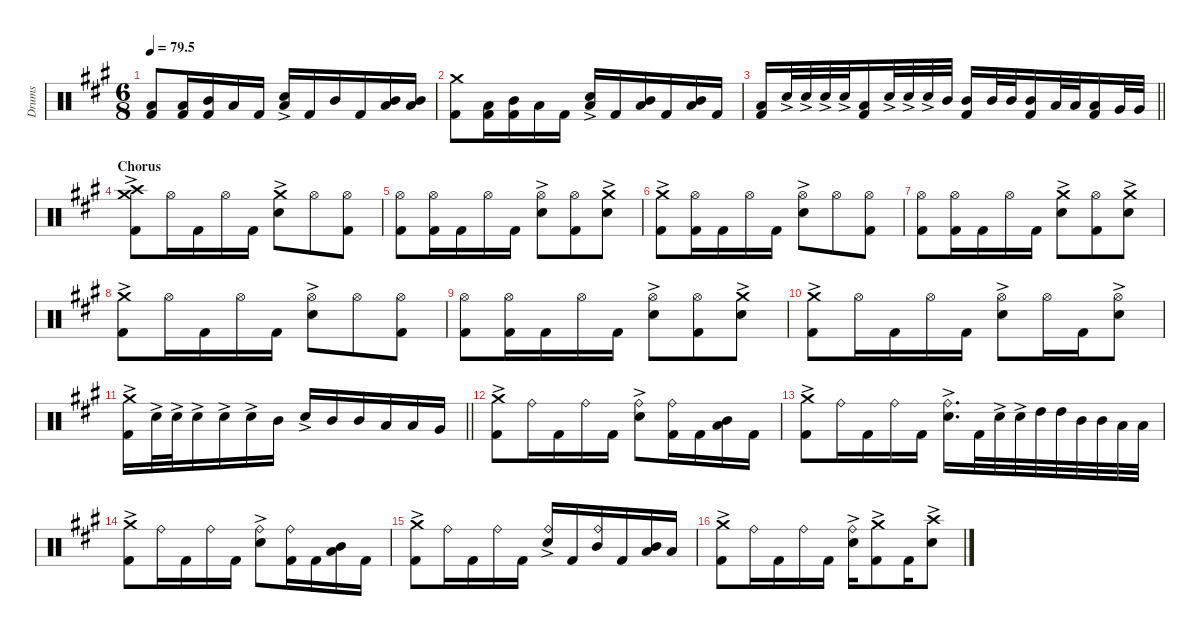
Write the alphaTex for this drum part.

\defaultSystemsLayout 4
\hideDynamics
\bracketExtendMode nobrackets
\otherSystemsTrackNameOrientation horizontal
\track ("Drumkit-show" "Drums") {mute instrument percussion}
\staff {score}
\articulation defaults
\ts (6 8)
\tempo
79.5
\accidentals auto
\clef neutral
\ottava regular
\simile none
\ks a
("Low Tom (hit)"{acc forcenatural} "Kick (hit) 2"{acc forcenatural}).8{dy f beam Up} ("Low Tom (hit)"{acc forcenatural} "Kick (hit) 2"{acc forcenatural}).16{beam Up} ("Mid Tom (hit)"{acc forcenatural} "Kick (hit) 2"{acc forcenatural}).16{beam Up} "Low Tom (hit)"{acc forcenatural}.16{beam Up} "Kick (hit) 2"{acc forcenatural}.16{beam Up} ("Snare (hit) 2"{ac acc forcenatural} "Low Tom (hit)"{acc forcenatural}).16{beam Up} "Kick (hit) 2"{acc forcenatural}.16{beam Up} "Mid Tom (hit)"{acc forcenatural}.16{beam Up} "Kick (hit) 2"{acc forcenatural}.16{beam Up} ("Mid Tom (hit)"{acc forcenatural} "Low Tom (hit)"{acc forcenatural}).16{beam Up} ("Mid Tom (hit)"{acc forcenatural} "Low Tom (hit)"{acc forcenatural}).16{beam Up} |
("Crash medium (hit)"{acc forcenatural} "Kick (hit) 2"{acc forcenatural}).8{beam Down} ("Low Tom (hit)"{acc forcenatural} "Kick (hit) 2"{acc forcenatural}).16{beam Down} ("Mid Tom (hit)"{acc forcenatural} "Kick (hit) 2"{acc forcenatural}).16{beam Down} "Low Tom (hit)"{acc forcenatural}.16{beam Down} "Kick (hit) 2"{acc forcenatural}.16{beam Down} ("Snare (hit) 2"{ac acc forcenatural} "Low Tom (hit)"{acc forcenatural}).16{beam Up} "Kick (hit) 2"{acc forcenatural}.16{beam Up} ("Mid Tom (hit)"{acc forcenatural} "Low Tom (hit)"{acc forcenatural}).16{beam Up} "Kick (hit) 2"{acc forcenatural}.16{beam Up} ("Mid Tom (hit)"{acc forcenatural} "Low Tom (hit)"{acc forcenatural}).16{beam Up} "Kick (hit) 2"{acc forcenatural}.16{beam Up} |
\barLineRight lightlight
("Low Tom (hit)"{acc forcenatural} "Kick (hit) 2"{acc forcenatural}).16{beam Up} "Snare (hit) 2"{ac acc forcenatural}.32{beam Up} "Snare (hit) 2"{ac acc forcenatural}.32{beam Up} "Snare (hit) 2"{ac acc forcenatural}.32{beam Up} "Snare (hit) 2"{ac acc forcenatural}.32{beam Up} ("Low Tom (hit)"{acc forcenatural} "Kick (hit) 2"{acc forcenatural}).16{beam Up} "Snare (hit) 2"{ac acc forcenatural}.32{beam Up} "Snare (hit) 2"{ac acc forcenatural}.32{beam Up} "Snare (hit) 2"{ac acc forcenatural}.32{beam Up} "Mid Tom (hit)"{acc forcenatural}.32{beam Up} ("Mid Tom (hit)"{acc forcenatural} "Kick (hit) 2"{acc forcenatural}).16{beam Up} "Mid Tom (hit)"{acc forcenatural}.32{beam Up} "Mid Tom (hit)"{acc forcenatural}.32{beam Up} ("Mid Tom (hit)"{acc forcenatural} "Kick (hit) 2"{acc forcenatural}).16{beam Up} "Low Tom (hit)"{acc forcenatural}.32{beam Up} "Low Tom (hit)"{acc forcenatural}.32{beam Up} ("Low Tom (hit)"{acc forcenatural} "Kick (hit) 2"{acc forcenatural}).16{beam Up} "Very Low Tom (hit)"{acc forcenatural}.32{beam Up} "Very Low Tom (hit)"{acc forcenatural}.32{beam Up} |
\section ("" "Chorus")
("Crash medium (hit)"{ac acc forcenatural} "Crash high (hit)"{acc forcenatural} "Kick (hit) 2"{acc forcenatural}).8{beam Down} "Hi-Hat (open)"{acc forcenatural}.16{beam Down} "Kick (hit) 2"{acc forcenatural}.16{beam Down} "Hi-Hat (open)"{acc forcenatural}.16{beam Down} "Kick (hit) 2"{acc forcenatural}.16{beam Down} ("Crash medium (hit)"{ac acc forcenatural} "Snare (hit) 2"{ac acc forcenatural}).8{beam Down} "Hi-Hat (open)"{acc forcenatural}.8{beam Down} ("Hi-Hat (open)"{acc forcenatural} "Kick (hit) 2"{acc forcenatural}).8{beam Down} |
("Hi-Hat (open)"{acc forcenatural} "Kick (hit) 2"{acc forcenatural}).8{beam Down} ("Hi-Hat (open)"{acc forcenatural} "Kick (hit) 2"{acc forcenatural}).16{beam Down} "Kick (hit) 2"{acc forcenatural}.16{beam Down} "Hi-Hat (open)"{acc forcenatural}.16{beam Down} "Kick (hit) 2"{acc forcenatural}.16{beam Down} ("Hi-Hat (open)"{acc forcenatural} "Snare (hit) 2"{ac acc forcenatural}).8{beam Down} ("Hi-Hat (open)"{acc forcenatural} "Kick (hit) 2"{acc forcenatural}).8{beam Down} ("Crash medium (hit)"{ac acc forcenatural} "Snare (hit) 2"{ac acc forcenatural}).8{beam Down} |
("Crash medium (hit)"{ac acc forcenatural} "Kick (hit) 2"{acc forcenatural}).8{beam Down} ("Hi-Hat (open)"{acc forcenatural} "Kick (hit) 2"{acc forcenatural}).16{beam Down} "Kick (hit) 2"{acc forcenatural}.16{beam Down} "Hi-Hat (open)"{acc forcenatural}.16{beam Down} "Kick (hit) 2"{acc forcenatural}.16{beam Down} ("Hi-Hat (open)"{acc forcenatural} "Snare (hit) 2"{ac acc forcenatural}).8{beam Down} "Hi-Hat (open)"{acc forcenatural}.8{beam Down} ("Hi-Hat (open)"{acc forcenatural} "Kick (hit) 2"{acc forcenatural}).8{beam Down} |
("Hi-Hat (open)"{acc forcenatural} "Kick (hit) 2"{acc forcenatural}).8{beam Down} ("Hi-Hat (open)"{acc forcenatural} "Kick (hit) 2"{acc forcenatural}).16{beam Down} "Kick (hit) 2"{acc forcenatural}.16{beam Down} "Hi-Hat (open)"{acc forcenatural}.16{beam Down} "Kick (hit) 2"{acc forcenatural}.16{beam Down} ("Crash medium (hit)"{ac acc forcenatural} "Snare (hit) 2"{ac acc forcenatural}).8{beam Down} ("Hi-Hat (open)"{acc forcenatural} "Kick (hit) 2"{acc forcenatural}).8{beam Down} ("Crash medium (hit)"{ac acc forcenatural} "Snare (hit) 2"{ac acc forcenatural}).8{beam Down} |
("Crash medium (hit)"{ac acc forcenatural} "Kick (hit) 2"{acc forcenatural}).8{beam Down} "Hi-Hat (open)"{acc forcenatural}.16{beam Down} "Kick (hit) 2"{acc forcenatural}.16{beam Down} "Hi-Hat (open)"{acc forcenatural}.16{beam Down} "Kick (hit) 2"{acc forcenatural}.16{beam Down} ("Hi-Hat (open)"{acc forcenatural} "Snare (hit) 2"{ac acc forcenatural}).8{beam Down} "Hi-Hat (open)"{acc forcenatural}.8{beam Down} ("Hi-Hat (open)"{acc forcenatural} "Kick (hit) 2"{acc forcenatural}).8{beam Down} |
("Hi-Hat (open)"{acc forcenatural} "Kick (hit) 2"{acc forcenatural}).8{beam Down} ("Hi-Hat (open)"{acc forcenatural} "Kick (hit) 2"{acc forcenatural}).16{beam Down} "Kick (hit) 2"{acc forcenatural}.16{beam Down} "Hi-Hat (open)"{acc forcenatural}.16{beam Down} "Kick (hit) 2"{acc forcenatural}.16{beam Down} ("Hi-Hat (open)"{acc forcenatural} "Snare (hit) 2"{ac acc forcenatural}).8{beam Down} ("Hi-Hat (open)"{acc forcenatural} "Kick (hit) 2"{acc forcenatural}).8{beam Down} ("Crash medium (hit)"{ac acc forcenatural} "Snare (hit) 2"{ac acc forcenatural}).8{beam Down} |
("Crash medium (hit)"{ac acc forcenatural} "Kick (hit) 2"{acc forcenatural}).8{beam Down} "Hi-Hat (open)"{acc forcenatural}.16{beam Down} "Kick (hit) 2"{acc forcenatural}.16{beam Down} "Hi-Hat (open)"{acc forcenatural}.16{beam Down} "Kick (hit) 2"{acc forcenatural}.16{beam Down} ("Hi-Hat (open)"{acc forcenatural} "Snare (hit) 2"{ac acc forcenatural}).8{beam Down} "Hi-Hat (open)"{acc forcenatural}.16{beam Down} "Kick (hit) 2"{acc forcenatural}.16{beam Down} ("Hi-Hat (open)"{acc forcenatural} "Snare (hit) 2"{ac acc forcenatural}).8{beam Down} |
\barLineRight lightlight
("Crash medium (hit)"{ac acc forcenatural} "Kick (hit) 2"{acc forcenatural}).16{beam Down} "Snare (hit) 2"{ac acc forcenatural}.32{beam Down} "Snare (hit) 2"{ac acc forcenatural}.32{beam Down} "Snare (hit) 2"{ac acc forcenatural}.16{beam Down} "Snare (hit) 2"{ac acc forcenatural}.16{beam Down} "Snare (hit) 2"{ac acc forcenatural}.16{beam Down} "Mid Tom (hit)"{acc forcenatural}.16{beam Down} "Snare (hit) 2"{ac acc forcenatural}.16{beam Up} "Mid Tom (hit)"{acc forcenatural}.16{beam Up} "Mid Tom (hit)"{acc forcenatural}.16{beam Up} "Low Tom (hit)"{acc forcenatural}.16{beam Up} "Low Tom (hit)"{acc forcenatural}.16{beam Up} "Very Low Tom (hit)"{acc forcenatural}.16{beam Up} |
("Crash medium (hit)"{ac acc forcenatural} "Kick (hit) 2"{acc forcenatural}).8{beam Down} "Ride (bell)"{acc forcenatural}.16{beam Down} "Kick (hit) 2"{acc forcenatural}.16{beam Down} "Ride (bell)"{acc forcenatural}.16{beam Down} "Kick (hit) 2"{acc forcenatural}.16{beam Down} ("Ride (bell)"{acc forcenatural} "Snare (hit) 2"{ac acc forcenatural}).8{beam Down} ("Ride (bell)"{acc forcenatural} "Kick (hit) 2"{acc forcenatural}).16{beam Down} "Kick (hit) 2"{acc forcenatural}.16{beam Down} ("Mid Tom (hit)"{acc forcenatural} "Low Tom (hit)"{acc forcenatural}).16{beam Down} "Kick (hit) 2"{acc forcenatural}.16{beam Down} |
("Crash medium (hit)"{ac acc forcenatural} "Kick (hit) 2"{acc forcenatural}).8{beam Down} "Ride (bell)"{acc forcenatural}.16{beam Down} "Kick (hit) 2"{acc forcenatural}.16{beam Down} "Ride (bell)"{acc forcenatural}.16{beam Down} "Kick (hit) 2"{acc forcenatural}.16{beam Down} ("Ride (bell)"{acc forcenatural} "Snare (hit) 2"{ac acc forcenatural}).16{d beam Down} "Kick (hit) 2"{acc forcenatural}.32{beam Down} "Snare (hit) 2"{ac acc forcenatural}.32{beam Down} "Snare (hit) 2"{ac acc forcenatural}.32{beam Down} "High Tom (hit)"{acc forcenatural}.32{beam Down} "High Tom (hit)"{acc forcenatural}.32{beam Down} "Mid Tom (hit)"{acc forcenatural}.32{beam Down} "Mid Tom (hit)"{acc forcenatural}.32{beam Down} "Low Tom (hit)"{acc forcenatural}.32{beam Down} "Low Tom (hit)"{acc forcenatural}.32{beam Down} |
("Crash medium (hit)"{ac acc forcenatural} "Kick (hit) 2"{acc forcenatural}).8{beam Down} "Ride (bell)"{acc forcenatural}.16{beam Down} "Kick (hit) 2"{acc forcenatural}.16{beam Down} "Ride (bell)"{acc forcenatural}.16{beam Down} "Kick (hit) 2"{acc forcenatural}.16{beam Down} ("Ride (bell)"{acc forcenatural} "Snare (hit) 2"{ac acc forcenatural}).8{beam Down} ("Ride (bell)"{acc forcenatural} "Kick (hit) 2"{acc forcenatural}).16{beam Down} "Kick (hit) 2"{acc forcenatural}.16{beam Down} ("Mid Tom (hit)"{acc forcenatural} "Low Tom (hit)"{acc forcenatural}).16{beam Down} "Kick (hit) 2"{acc forcenatural}.16{beam Down} |
("Crash medium (hit)"{ac acc forcenatural} "Kick (hit) 2"{acc forcenatural}).8{beam Down} "Ride (bell)"{acc forcenatural}.16{beam Down} "Kick (hit) 2"{acc forcenatural}.16{beam Down} "Ride (bell)"{acc forcenatural}.16{beam Down} "Kick (hit) 2"{acc forcenatural}.16{beam Down} ("Ride (bell)"{acc forcenatural} "Snare (hit) 2"{ac acc forcenatural}).16{beam Up} "Kick (hit) 2"{acc forcenatural}.16{beam Up} ("Ride (bell)"{acc forcenatural} "Mid Tom (hit)"{acc forcenatural}).16{beam Up} "Kick (hit) 2"{acc forcenatural}.16{beam Up} ("Mid Tom (hit)"{acc forcenatural} "Low Tom (hit)"{acc forcenatural}).16{beam Up} "Low Tom (hit)"{acc forcenatural}.16{beam Up} |
("Crash medium (hit)"{ac acc forcenatural} "Kick (hit) 2"{acc forcenatural}).8{beam Down} "Ride (bell)"{acc forcenatural}.16{beam Down} "Kick (hit) 2"{acc forcenatural}.16{beam Down} "Ride (bell)"{acc forcenatural}.16{beam Down} "Kick (hit) 2"{acc forcenatural}.16{beam Down} ("Ride (bell)"{acc forcenatural} "Snare (hit) 2"{ac acc forcenatural}).16{beam Down} ("Crash medium (hit)"{ac acc forcenatural} "Kick (hit) 2"{acc forcenatural}).8{beam Down} "Kick (hit) 2"{acc forcenatural}.16{beam Down} ("Crash high (hit)"{acc forcenatural} "Snare (hit) 2"{ac acc forcenatural}).8{beam Down}
